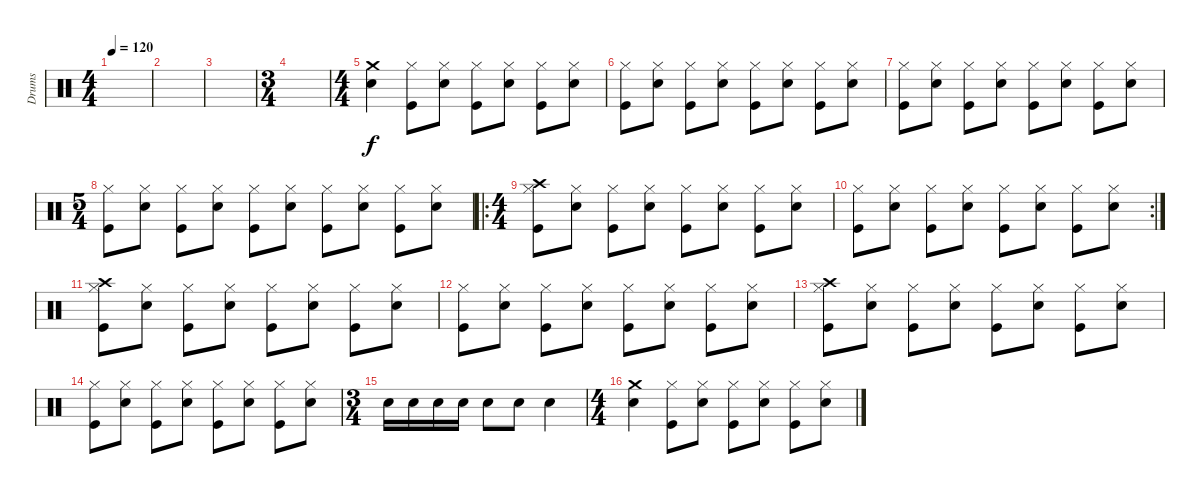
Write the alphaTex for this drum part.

\track ("Drums" "Drums") {instrument percussion}
\staff {score}
\articulation defaults
\ts (4 4)
\tempo 120
\clef neutral
\ks c
|
|
|
\ts (3 4)
|
\ts (4 4)
("Crash medium (hit)" "Electric Snare (hit)").4 ("Hi-Hat (closed)" "Kick (hit)").8 ("Hi-Hat (closed)" "Electric Snare (hit)").8 ("Hi-Hat (closed)" "Kick (hit)").8 ("Hi-Hat (closed)" "Electric Snare (hit)").8 ("Hi-Hat (closed)" "Kick (hit)").8 ("Hi-Hat (closed)" "Electric Snare (hit)").8 |
("Hi-Hat (closed)" "Kick (hit)").8 ("Hi-Hat (closed)" "Electric Snare (hit)").8 ("Hi-Hat (closed)" "Kick (hit)").8 ("Hi-Hat (closed)" "Electric Snare (hit)").8 ("Hi-Hat (closed)" "Kick (hit)").8 ("Hi-Hat (closed)" "Electric Snare (hit)").8 ("Hi-Hat (closed)" "Kick (hit)").8 ("Hi-Hat (closed)" "Electric Snare (hit)").8 |
("Hi-Hat (closed)" "Kick (hit)").8 ("Hi-Hat (closed)" "Electric Snare (hit)").8 ("Hi-Hat (closed)" "Kick (hit)").8 ("Hi-Hat (closed)" "Electric Snare (hit)").8 ("Hi-Hat (closed)" "Kick (hit)").8 ("Hi-Hat (closed)" "Electric Snare (hit)").8 ("Hi-Hat (closed)" "Kick (hit)").8 ("Hi-Hat (closed)" "Electric Snare (hit)").8 |
\ts (5 4)
("Hi-Hat (closed)" "Kick (hit)").8 ("Hi-Hat (closed)" "Electric Snare (hit)").8 ("Hi-Hat (closed)" "Kick (hit)").8 ("Hi-Hat (closed)" "Electric Snare (hit)").8 ("Hi-Hat (closed)" "Kick (hit)").8 ("Hi-Hat (closed)" "Electric Snare (hit)").8 ("Hi-Hat (closed)" "Kick (hit)").8 ("Hi-Hat (closed)" "Electric Snare (hit)").8 ("Hi-Hat (closed)" "Kick (hit)").8 ("Hi-Hat (closed)" "Electric Snare (hit)").8 |
\ro
\ts (4 4)
("Crash high (hit)" "Hi-Hat (closed)" "Kick (hit)").8 ("Hi-Hat (closed)" "Electric Snare (hit)").8 ("Hi-Hat (closed)" "Kick (hit)").8 ("Hi-Hat (closed)" "Electric Snare (hit)").8 ("Hi-Hat (closed)" "Kick (hit)").8 ("Hi-Hat (closed)" "Electric Snare (hit)").8 ("Hi-Hat (closed)" "Kick (hit)").8 ("Hi-Hat (closed)" "Electric Snare (hit)").8 |
\rc 2
("Hi-Hat (closed)" "Kick (hit)").8 ("Hi-Hat (closed)" "Electric Snare (hit)").8 ("Hi-Hat (closed)" "Kick (hit)").8 ("Hi-Hat (closed)" "Electric Snare (hit)").8 ("Hi-Hat (closed)" "Kick (hit)").8 ("Hi-Hat (closed)" "Electric Snare (hit)").8 ("Hi-Hat (closed)" "Kick (hit)").8 ("Hi-Hat (closed)" "Electric Snare (hit)").8 |
("Crash high (hit)" "Hi-Hat (closed)" "Kick (hit)").8 ("Hi-Hat (closed)" "Electric Snare (hit)").8 ("Hi-Hat (closed)" "Kick (hit)").8 ("Hi-Hat (closed)" "Electric Snare (hit)").8 ("Hi-Hat (closed)" "Kick (hit)").8 ("Hi-Hat (closed)" "Electric Snare (hit)").8 ("Hi-Hat (closed)" "Kick (hit)").8 ("Hi-Hat (closed)" "Electric Snare (hit)").8 |
("Hi-Hat (closed)" "Kick (hit)").8 ("Hi-Hat (closed)" "Electric Snare (hit)").8 ("Hi-Hat (closed)" "Kick (hit)").8 ("Hi-Hat (closed)" "Electric Snare (hit)").8 ("Hi-Hat (closed)" "Kick (hit)").8 ("Hi-Hat (closed)" "Electric Snare (hit)").8 ("Hi-Hat (closed)" "Kick (hit)").8 ("Hi-Hat (closed)" "Electric Snare (hit)").8 |
("Crash high (hit)" "Hi-Hat (closed)" "Kick (hit)").8 ("Hi-Hat (closed)" "Electric Snare (hit)").8 ("Hi-Hat (closed)" "Kick (hit)").8 ("Hi-Hat (closed)" "Electric Snare (hit)").8 ("Hi-Hat (closed)" "Kick (hit)").8 ("Hi-Hat (closed)" "Electric Snare (hit)").8 ("Hi-Hat (closed)" "Kick (hit)").8 ("Hi-Hat (closed)" "Electric Snare (hit)").8 |
("Hi-Hat (closed)" "Kick (hit)").8 ("Hi-Hat (closed)" "Electric Snare (hit)").8 ("Hi-Hat (closed)" "Kick (hit)").8 ("Hi-Hat (closed)" "Electric Snare (hit)").8 ("Hi-Hat (closed)" "Kick (hit)").8 ("Hi-Hat (closed)" "Electric Snare (hit)").8 ("Hi-Hat (closed)" "Kick (hit)").8 ("Hi-Hat (closed)" "Electric Snare (hit)").8 |
\ts (3 4)
"Electric Snare (hit)".16 "Electric Snare (hit)".16 "Electric Snare (hit)".16 "Electric Snare (hit)".16 "Electric Snare (hit)".8 "Electric Snare (hit)".8 "Electric Snare (hit)".4 |
\ts (4 4)
("Crash medium (hit)" "Electric Snare (hit)").4 ("Hi-Hat (closed)" "Kick (hit)").8 ("Hi-Hat (closed)" "Electric Snare (hit)").8 ("Hi-Hat (closed)" "Kick (hit)").8 ("Hi-Hat (closed)" "Electric Snare (hit)").8 ("Hi-Hat (closed)" "Kick (hit)").8 ("Hi-Hat (closed)" "Electric Snare (hit)").8
